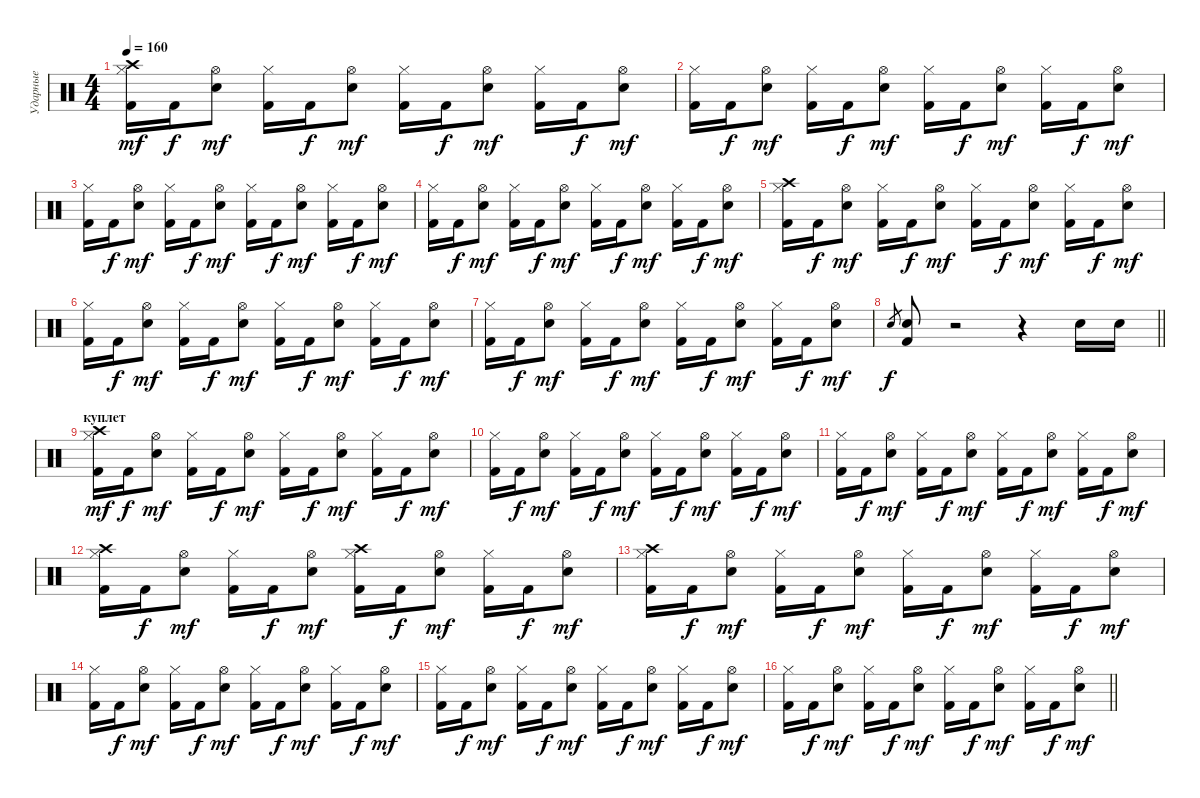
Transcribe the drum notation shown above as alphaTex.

\track ("Ударные" "Ударные") {instrument percussion}
\staff {score}
\articulation defaults
\ts (4 4)
\section ("" "")
\tempo 160
\clef neutral
\ks c
("Kick (hit) 2" "Hi-Hat (closed)" "Crash high (hit)").16{dy mf} "Kick (hit) 2".16{dy f} ("Snare (hit) 2" "Hi-Hat (open)").8{dy mf} ("Kick (hit) 2" "Hi-Hat (closed)").16 "Kick (hit) 2".16{dy f} ("Snare (hit) 2" "Hi-Hat (open)").8{dy mf} ("Kick (hit) 2" "Hi-Hat (closed)").16 "Kick (hit) 2".16{dy f} ("Snare (hit) 2" "Hi-Hat (open)").8{dy mf} ("Kick (hit) 2" "Hi-Hat (closed)").16 "Kick (hit) 2".16{dy f} ("Snare (hit) 2" "Hi-Hat (open)").8{dy mf} |
("Kick (hit) 2" "Hi-Hat (closed)").16 "Kick (hit) 2".16{dy f} ("Snare (hit) 2" "Hi-Hat (open)").8{dy mf} ("Kick (hit) 2" "Hi-Hat (closed)").16 "Kick (hit) 2".16{dy f} ("Snare (hit) 2" "Hi-Hat (open)").8{dy mf} ("Kick (hit) 2" "Hi-Hat (closed)").16 "Kick (hit) 2".16{dy f} ("Snare (hit) 2" "Hi-Hat (open)").8{dy mf} ("Kick (hit) 2" "Hi-Hat (closed)").16 "Kick (hit) 2".16{dy f} ("Snare (hit) 2" "Hi-Hat (open)").8{dy mf} |
("Kick (hit) 2" "Hi-Hat (closed)").16 "Kick (hit) 2".16{dy f} ("Snare (hit) 2" "Hi-Hat (open)").8{dy mf} ("Kick (hit) 2" "Hi-Hat (closed)").16 "Kick (hit) 2".16{dy f} ("Snare (hit) 2" "Hi-Hat (open)").8{dy mf} ("Kick (hit) 2" "Hi-Hat (closed)").16 "Kick (hit) 2".16{dy f} ("Snare (hit) 2" "Hi-Hat (open)").8{dy mf} ("Kick (hit) 2" "Hi-Hat (closed)").16 "Kick (hit) 2".16{dy f} ("Snare (hit) 2" "Hi-Hat (open)").8{dy mf} |
("Kick (hit) 2" "Hi-Hat (closed)").16 "Kick (hit) 2".16{dy f} ("Snare (hit) 2" "Hi-Hat (open)").8{dy mf} ("Kick (hit) 2" "Hi-Hat (closed)").16 "Kick (hit) 2".16{dy f} ("Snare (hit) 2" "Hi-Hat (open)").8{dy mf} ("Kick (hit) 2" "Hi-Hat (closed)").16 "Kick (hit) 2".16{dy f} ("Snare (hit) 2" "Hi-Hat (open)").8{dy mf} ("Kick (hit) 2" "Hi-Hat (closed)").16 "Kick (hit) 2".16{dy f} ("Snare (hit) 2" "Hi-Hat (open)").8{dy mf} |
("Kick (hit) 2" "Hi-Hat (closed)" "Crash high (hit)").16 "Kick (hit) 2".16{dy f} ("Snare (hit) 2" "Hi-Hat (open)").8{dy mf} ("Kick (hit) 2" "Hi-Hat (closed)").16 "Kick (hit) 2".16{dy f} ("Snare (hit) 2" "Hi-Hat (open)").8{dy mf} ("Kick (hit) 2" "Hi-Hat (closed)").16 "Kick (hit) 2".16{dy f} ("Snare (hit) 2" "Hi-Hat (open)").8{dy mf} ("Kick (hit) 2" "Hi-Hat (closed)").16 "Kick (hit) 2".16{dy f} ("Snare (hit) 2" "Hi-Hat (open)").8{dy mf} |
("Kick (hit) 2" "Hi-Hat (closed)").16 "Kick (hit) 2".16{dy f} ("Snare (hit) 2" "Hi-Hat (open)").8{dy mf} ("Kick (hit) 2" "Hi-Hat (closed)").16 "Kick (hit) 2".16{dy f} ("Snare (hit) 2" "Hi-Hat (open)").8{dy mf} ("Kick (hit) 2" "Hi-Hat (closed)").16 "Kick (hit) 2".16{dy f} ("Snare (hit) 2" "Hi-Hat (open)").8{dy mf} ("Kick (hit) 2" "Hi-Hat (closed)").16 "Kick (hit) 2".16{dy f} ("Snare (hit) 2" "Hi-Hat (open)").8{dy mf} |
("Kick (hit) 2" "Hi-Hat (closed)").16 "Kick (hit) 2".16{dy f} ("Snare (hit) 2" "Hi-Hat (open)").8{dy mf} ("Kick (hit) 2" "Hi-Hat (closed)").16 "Kick (hit) 2".16{dy f} ("Snare (hit) 2" "Hi-Hat (open)").8{dy mf} ("Kick (hit) 2" "Hi-Hat (closed)").16 "Kick (hit) 2".16{dy f} ("Snare (hit) 2" "Hi-Hat (open)").8{dy mf} ("Kick (hit) 2" "Hi-Hat (closed)").16 "Kick (hit) 2".16{dy f} ("Snare (hit) 2" "Hi-Hat (open)").8{dy mf} |
\barLineRight lightlight "Electric Snare (hit)".8{gr dy f}
("Kick (hit) 2" "Electric Snare (hit)").8 r.2 r.4 "Electric Snare (hit)".16 "Electric Snare (hit)".16 |
\section ("" "куплет")
("Kick (hit) 2" "Hi-Hat (closed)" "Crash high (hit)").16{dy mf} "Kick (hit) 2".16{dy f} ("Snare (hit) 2" "Hi-Hat (open)").8{dy mf} ("Kick (hit) 2" "Hi-Hat (closed)").16 "Kick (hit) 2".16{dy f} ("Snare (hit) 2" "Hi-Hat (open)").8{dy mf} ("Kick (hit) 2" "Hi-Hat (closed)").16 "Kick (hit) 2".16{dy f} ("Snare (hit) 2" "Hi-Hat (open)").8{dy mf} ("Kick (hit) 2" "Hi-Hat (closed)").16 "Kick (hit) 2".16{dy f} ("Snare (hit) 2" "Hi-Hat (open)").8{dy mf} |
("Kick (hit) 2" "Hi-Hat (closed)").16 "Kick (hit) 2".16{dy f} ("Snare (hit) 2" "Hi-Hat (open)").8{dy mf} ("Kick (hit) 2" "Hi-Hat (closed)").16 "Kick (hit) 2".16{dy f} ("Snare (hit) 2" "Hi-Hat (open)").8{dy mf} ("Kick (hit) 2" "Hi-Hat (closed)").16 "Kick (hit) 2".16{dy f} ("Snare (hit) 2" "Hi-Hat (open)").8{dy mf} ("Kick (hit) 2" "Hi-Hat (closed)").16 "Kick (hit) 2".16{dy f} ("Snare (hit) 2" "Hi-Hat (open)").8{dy mf} |
("Kick (hit) 2" "Hi-Hat (closed)").16 "Kick (hit) 2".16{dy f} ("Snare (hit) 2" "Hi-Hat (open)").8{dy mf} ("Kick (hit) 2" "Hi-Hat (closed)").16 "Kick (hit) 2".16{dy f} ("Snare (hit) 2" "Hi-Hat (open)").8{dy mf} ("Kick (hit) 2" "Hi-Hat (closed)").16 "Kick (hit) 2".16{dy f} ("Snare (hit) 2" "Hi-Hat (open)").8{dy mf} ("Kick (hit) 2" "Hi-Hat (closed)").16 "Kick (hit) 2".16{dy f} ("Snare (hit) 2" "Hi-Hat (open)").8{dy mf} |
("Kick (hit) 2" "Hi-Hat (closed)" "Crash high (hit)").16 "Kick (hit) 2".16{dy f} ("Snare (hit) 2" "Hi-Hat (open)").8{dy mf} ("Kick (hit) 2" "Hi-Hat (closed)").16 "Kick (hit) 2".16{dy f} ("Snare (hit) 2" "Hi-Hat (open)").8{dy mf} ("Kick (hit) 2" "Hi-Hat (closed)" "Crash high (hit)").16 "Kick (hit) 2".16{dy f} ("Snare (hit) 2" "Hi-Hat (open)").8{dy mf} ("Kick (hit) 2" "Hi-Hat (closed)").16 "Kick (hit) 2".16{dy f} ("Snare (hit) 2" "Hi-Hat (open)").8{dy mf} |
("Kick (hit) 2" "Hi-Hat (closed)" "Crash high (hit)").16 "Kick (hit) 2".16{dy f} ("Snare (hit) 2" "Hi-Hat (open)").8{dy mf} ("Kick (hit) 2" "Hi-Hat (closed)").16 "Kick (hit) 2".16{dy f} ("Snare (hit) 2" "Hi-Hat (open)").8{dy mf} ("Kick (hit) 2" "Hi-Hat (closed)").16 "Kick (hit) 2".16{dy f} ("Snare (hit) 2" "Hi-Hat (open)").8{dy mf} ("Kick (hit) 2" "Hi-Hat (closed)").16 "Kick (hit) 2".16{dy f} ("Snare (hit) 2" "Hi-Hat (open)").8{dy mf} |
("Kick (hit) 2" "Hi-Hat (closed)").16 "Kick (hit) 2".16{dy f} ("Snare (hit) 2" "Hi-Hat (open)").8{dy mf} ("Kick (hit) 2" "Hi-Hat (closed)").16 "Kick (hit) 2".16{dy f} ("Snare (hit) 2" "Hi-Hat (open)").8{dy mf} ("Kick (hit) 2" "Hi-Hat (closed)").16 "Kick (hit) 2".16{dy f} ("Snare (hit) 2" "Hi-Hat (open)").8{dy mf} ("Kick (hit) 2" "Hi-Hat (closed)").16 "Kick (hit) 2".16{dy f} ("Snare (hit) 2" "Hi-Hat (open)").8{dy mf} |
("Kick (hit) 2" "Hi-Hat (closed)").16 "Kick (hit) 2".16{dy f} ("Snare (hit) 2" "Hi-Hat (open)").8{dy mf} ("Kick (hit) 2" "Hi-Hat (closed)").16 "Kick (hit) 2".16{dy f} ("Snare (hit) 2" "Hi-Hat (open)").8{dy mf} ("Kick (hit) 2" "Hi-Hat (closed)").16 "Kick (hit) 2".16{dy f} ("Snare (hit) 2" "Hi-Hat (open)").8{dy mf} ("Kick (hit) 2" "Hi-Hat (closed)").16 "Kick (hit) 2".16{dy f} ("Snare (hit) 2" "Hi-Hat (open)").8{dy mf} |
\barLineRight lightlight
("Kick (hit) 2" "Hi-Hat (closed)").16 "Kick (hit) 2".16{dy f} ("Snare (hit) 2" "Hi-Hat (open)").8{dy mf} ("Kick (hit) 2" "Hi-Hat (closed)").16 "Kick (hit) 2".16{dy f} ("Snare (hit) 2" "Hi-Hat (open)").8{dy mf} ("Kick (hit) 2" "Hi-Hat (closed)").16 "Kick (hit) 2".16{dy f} ("Snare (hit) 2" "Hi-Hat (open)").8{dy mf} ("Kick (hit) 2" "Hi-Hat (closed)").16 "Kick (hit) 2".16{dy f} ("Snare (hit) 2" "Hi-Hat (open)").8{dy mf}
